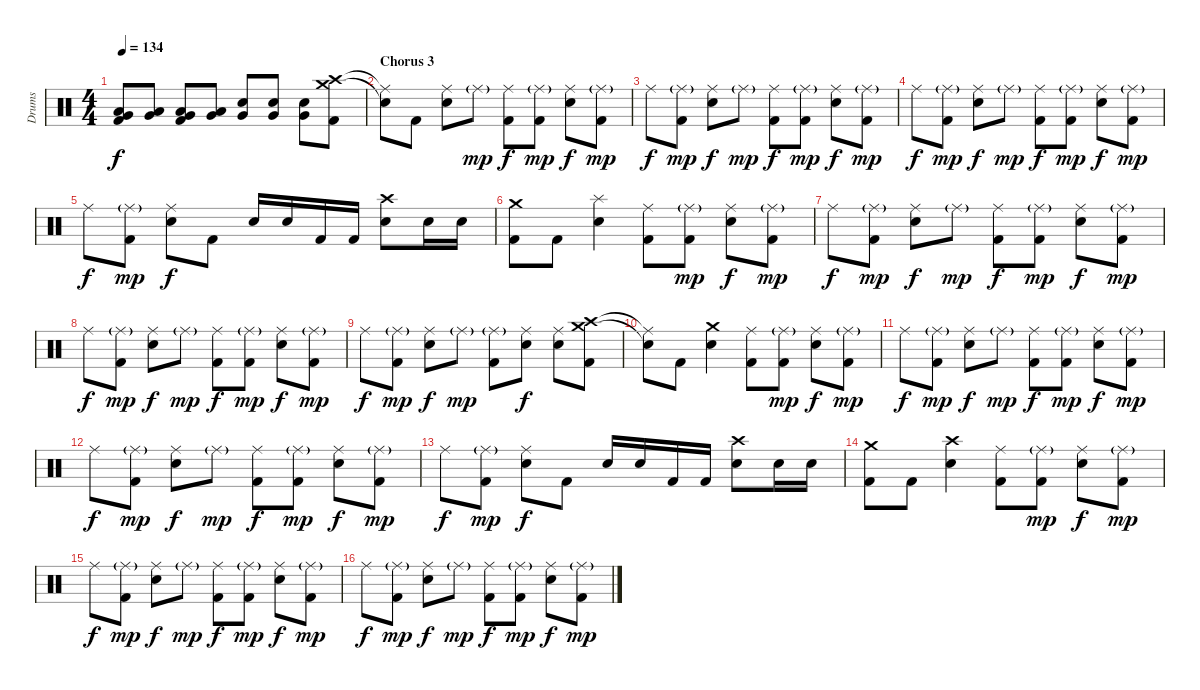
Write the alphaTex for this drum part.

\track ("Drums" "Drums") {instrument percussion}
\staff {score}
\articulation defaults
\ts (4 4)
\tempo 134
\clef neutral
\ks c
("Low Tom (hit)" "Very Low Tom (hit)" "Kick (hit) 2").8{dy f} ("Low Tom (hit)" "Very Low Tom (hit)").8 ("Low Tom (hit)" "Very Low Tom (hit)" "Kick (hit) 2").8 ("Low Tom (hit)" "Very Low Tom (hit)").8 ("Very Low Tom (hit)" "Snare (hit) 2").8 ("Very Low Tom (hit)" "Snare (hit) 2").8 ("Very Low Tom (hit)" "Snare (hit) 2").8 ("Crash medium (hit)" "Crash high (hit)" "Kick (hit) 2").8 |
\section ("" "Chorus 3")
("Snare (hit)"{t} "Ride (middle)"{t}).8 "Kick (hit) 2".8 ("Ride (middle)" "Snare (hit) 2").8 "Ride (middle)"{g}.8{dy mp} ("Ride (middle)" "Kick (hit) 2").8{dy f} ("Ride (middle)"{g} "Kick (hit) 2").8{dy mp} ("Ride (middle)" "Snare (hit) 2").8{dy f} ("Ride (middle)"{g} "Kick (hit) 2").8{dy mp} |
"Ride (middle)".8{dy f} ("Ride (middle)"{g} "Kick (hit) 2").8{dy mp} ("Ride (middle)" "Snare (hit) 2").8{dy f} "Ride (middle)"{g}.8{dy mp} ("Ride (middle)" "Kick (hit) 2").8{dy f} ("Ride (middle)"{g} "Kick (hit) 2").8{dy mp} ("Ride (middle)" "Snare (hit) 2").8{dy f} ("Ride (middle)"{g} "Kick (hit) 2").8{dy mp} |
"Ride (middle)".8{dy f} ("Ride (middle)"{g} "Kick (hit) 2").8{dy mp} ("Ride (middle)" "Snare (hit) 2").8{dy f} "Ride (middle)"{g}.8{dy mp} ("Ride (middle)" "Kick (hit) 2").8{dy f} ("Ride (middle)"{g} "Kick (hit) 2").8{dy mp} ("Ride (middle)" "Snare (hit) 2").8{dy f} ("Ride (middle)"{g} "Kick (hit) 2").8{dy mp} |
"Ride (middle)".8{dy f} ("Ride (middle)"{g} "Kick (hit) 2").8{dy mp} ("Ride (middle)" "Snare (hit) 2").8{dy f} "Kick (hit) 2".8 "Snare (hit) 2".16 "Snare (hit) 2".16 "Kick (hit) 2".16 "Kick (hit) 2".16 ("Crash high (hit)" "Snare (hit) 2").8 "Snare (hit) 2".16 "Snare (hit) 2".16 |
("Crash medium (hit)" "Kick (hit) 2").8 "Kick (hit) 2".8 ("Splash (hit)" "Snare (hit) 2").4 ("Ride (middle)" "Kick (hit) 2").8 ("Ride (middle)"{g} "Kick (hit) 2").8{dy mp} ("Ride (middle)" "Snare (hit) 2").8{dy f} ("Ride (middle)"{g} "Kick (hit) 2").8{dy mp} |
"Ride (middle)".8{dy f} ("Ride (middle)"{g} "Kick (hit) 2").8{dy mp} ("Ride (middle)" "Snare (hit) 2").8{dy f} "Ride (middle)"{g}.8{dy mp} ("Ride (middle)" "Kick (hit) 2").8{dy f} ("Ride (middle)"{g} "Kick (hit) 2").8{dy mp} ("Ride (middle)" "Snare (hit) 2").8{dy f} ("Ride (middle)"{g} "Kick (hit) 2").8{dy mp} |
"Ride (middle)".8{dy f} ("Ride (middle)"{g} "Kick (hit) 2").8{dy mp} ("Ride (middle)" "Snare (hit) 2").8{dy f} "Ride (middle)"{g}.8{dy mp} ("Ride (middle)" "Kick (hit) 2").8{dy f} ("Ride (middle)"{g} "Kick (hit) 2").8{dy mp} ("Ride (middle)" "Snare (hit) 2").8{dy f} ("Ride (middle)"{g} "Kick (hit) 2").8{dy mp} |
"Ride (middle)".8{dy f} ("Ride (middle)"{g} "Kick (hit) 2").8{dy mp} ("Ride (middle)" "Snare (hit) 2").8{dy f} "Ride (middle)"{g}.8{dy mp} ("Ride (middle)"{g} "Kick (hit) 2").8 ("Ride (middle)" "Snare (hit) 2").8{dy f} ("Ride (middle)" "Snare (hit) 2").8 ("Crash medium (hit)" "Crash high (hit)" "Kick (hit) 2").8 |
("Snare (hit)"{t} "Ride (middle)"{t}).8 "Kick (hit) 2".8 ("Crash medium (hit)" "Snare (hit) 2").4 ("Ride (middle)" "Kick (hit) 2").8 ("Ride (middle)"{g} "Kick (hit) 2").8{dy mp} ("Ride (middle)" "Snare (hit) 2").8{dy f} ("Ride (middle)"{g} "Kick (hit) 2").8{dy mp} |
"Ride (middle)".8{dy f} ("Ride (middle)"{g} "Kick (hit) 2").8{dy mp} ("Ride (middle)" "Snare (hit) 2").8{dy f} "Ride (middle)"{g}.8{dy mp} ("Ride (middle)" "Kick (hit) 2").8{dy f} ("Ride (middle)"{g} "Kick (hit) 2").8{dy mp} ("Ride (middle)" "Snare (hit) 2").8{dy f} ("Ride (middle)"{g} "Kick (hit) 2").8{dy mp} |
"Ride (middle)".8{dy f} ("Ride (middle)"{g} "Kick (hit) 2").8{dy mp} ("Ride (middle)" "Snare (hit) 2").8{dy f} "Ride (middle)"{g}.8{dy mp} ("Ride (middle)" "Kick (hit) 2").8{dy f} ("Ride (middle)"{g} "Kick (hit) 2").8{dy mp} ("Ride (middle)" "Snare (hit) 2").8{dy f} ("Ride (middle)"{g} "Kick (hit) 2").8{dy mp} |
"Ride (middle)".8{dy f} ("Ride (middle)"{g} "Kick (hit) 2").8{dy mp} ("Ride (middle)" "Snare (hit) 2").8{dy f} "Kick (hit) 2".8 "Snare (hit) 2".16 "Snare (hit) 2".16 "Kick (hit) 2".16 "Kick (hit) 2".16 ("Crash high (hit)" "Snare (hit) 2").8 "Snare (hit) 2".16 "Snare (hit) 2".16 |
("Crash medium (hit)" "Kick (hit) 2").8 "Kick (hit) 2".8 ("Crash high (hit)" "Snare (hit) 2").4 ("Ride (middle)" "Kick (hit) 2").8 ("Ride (middle)"{g} "Kick (hit) 2").8{dy mp} ("Ride (middle)" "Snare (hit) 2").8{dy f} ("Ride (middle)"{g} "Kick (hit) 2").8{dy mp} |
"Ride (middle)".8{dy f} ("Ride (middle)"{g} "Kick (hit) 2").8{dy mp} ("Ride (middle)" "Snare (hit) 2").8{dy f} "Ride (middle)"{g}.8{dy mp} ("Ride (middle)" "Kick (hit) 2").8{dy f} ("Ride (middle)"{g} "Kick (hit) 2").8{dy mp} ("Ride (middle)" "Snare (hit) 2").8{dy f} ("Ride (middle)"{g} "Kick (hit) 2").8{dy mp} |
"Ride (middle)".8{dy f} ("Ride (middle)"{g} "Kick (hit) 2").8{dy mp} ("Ride (middle)" "Snare (hit) 2").8{dy f} "Ride (middle)"{g}.8{dy mp} ("Ride (middle)" "Kick (hit) 2").8{dy f} ("Ride (middle)"{g} "Kick (hit) 2").8{dy mp} ("Ride (middle)" "Snare (hit) 2").8{dy f} ("Ride (middle)"{g} "Kick (hit) 2").8{dy mp}
